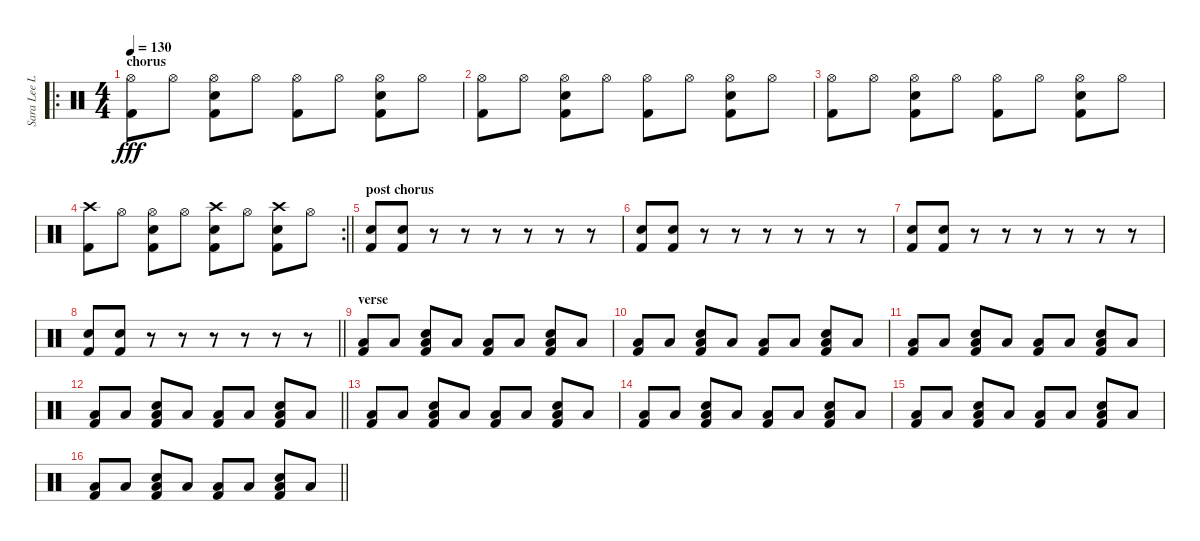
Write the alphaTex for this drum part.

\track ("Sara Lee Lucas" "Sara Lee L") {instrument percussion}
\staff {score}
\articulation defaults
\ro
\ts (4 4)
\section ("" "chorus")
\tempo 130
\clef neutral
\ks c
("Hi-Hat (open)" "Kick (hit) 2").8{dy fff} "Hi-Hat (open)".8 ("Hi-Hat (open)" "Snare (hit) 2" "Kick (hit) 2").8 "Hi-Hat (open)".8 ("Hi-Hat (open)" "Kick (hit) 2").8 "Hi-Hat (open)".8 ("Hi-Hat (open)" "Snare (hit) 2" "Kick (hit) 2").8 "Hi-Hat (open)".8 |
("Hi-Hat (open)" "Kick (hit) 2").8 "Hi-Hat (open)".8 ("Hi-Hat (open)" "Snare (hit) 2" "Kick (hit) 2").8 "Hi-Hat (open)".8 ("Hi-Hat (open)" "Kick (hit) 2").8 "Hi-Hat (open)".8 ("Hi-Hat (open)" "Snare (hit) 2" "Kick (hit) 2").8 "Hi-Hat (open)".8 |
("Hi-Hat (open)" "Kick (hit) 2").8 "Hi-Hat (open)".8 ("Hi-Hat (open)" "Snare (hit) 2" "Kick (hit) 2").8 "Hi-Hat (open)".8 ("Hi-Hat (open)" "Kick (hit) 2").8 "Hi-Hat (open)".8 ("Hi-Hat (open)" "Snare (hit) 2" "Kick (hit) 2").8 "Hi-Hat (open)".8 |
\rc 2
\barLineRight lightlight
("Crash high (hit)" "Kick (hit) 2").8 "Hi-Hat (open)".8 ("Hi-Hat (open)" "Snare (hit) 2" "Kick (hit) 2").8 "Hi-Hat (open)".8 ("Crash high (hit)" "Snare (hit) 2" "Kick (hit) 2").8 "Hi-Hat (open)".8 ("Crash high (hit)" "Snare (hit) 2" "Kick (hit) 2").8 "Hi-Hat (open)".8 |
\section ("" "post chorus")
("Snare (hit) 2" "Kick (hit) 2").8 ("Snare (hit) 2" "Kick (hit) 2").8 r.8 r.8 r.8 r.8 r.8 r.8 |
("Snare (hit) 2" "Kick (hit) 2").8 ("Snare (hit) 2" "Kick (hit) 2").8 r.8 r.8 r.8 r.8 r.8 r.8 |
("Snare (hit) 2" "Kick (hit) 2").8 ("Snare (hit) 2" "Kick (hit) 2").8 r.8 r.8 r.8 r.8 r.8 r.8 |
\barLineRight lightlight
("Snare (hit) 2" "Kick (hit) 2").8 ("Snare (hit) 2" "Kick (hit) 2").8 r.8 r.8 r.8 r.8 r.8 r.8 |
\section ("" "verse")
("Low Tom (hit)" "Kick (hit) 2").8 "Low Tom (hit)".8 ("Low Tom (hit)" "Snare (hit) 2" "Kick (hit) 2").8 "Low Tom (hit)".8 ("Low Tom (hit)" "Kick (hit) 2").8 "Low Tom (hit)".8 ("Low Tom (hit)" "Snare (hit) 2" "Kick (hit) 2").8 "Low Tom (hit)".8 |
("Low Tom (hit)" "Kick (hit) 2").8 "Low Tom (hit)".8 ("Low Tom (hit)" "Snare (hit) 2" "Kick (hit) 2").8 "Low Tom (hit)".8 ("Low Tom (hit)" "Kick (hit) 2").8 "Low Tom (hit)".8 ("Low Tom (hit)" "Snare (hit) 2" "Kick (hit) 2").8 "Low Tom (hit)".8 |
("Low Tom (hit)" "Kick (hit) 2").8 "Low Tom (hit)".8 ("Low Tom (hit)" "Snare (hit) 2" "Kick (hit) 2").8 "Low Tom (hit)".8 ("Low Tom (hit)" "Kick (hit) 2").8 "Low Tom (hit)".8 ("Low Tom (hit)" "Snare (hit) 2" "Kick (hit) 2").8 "Low Tom (hit)".8 |
\barLineRight lightlight
("Low Tom (hit)" "Kick (hit) 2").8 "Low Tom (hit)".8 ("Low Tom (hit)" "Snare (hit) 2" "Kick (hit) 2").8 "Low Tom (hit)".8 ("Low Tom (hit)" "Kick (hit) 2").8 "Low Tom (hit)".8 ("Low Tom (hit)" "Snare (hit) 2" "Kick (hit) 2").8 "Low Tom (hit)".8 |
("Low Tom (hit)" "Kick (hit) 2").8 "Low Tom (hit)".8 ("Low Tom (hit)" "Snare (hit) 2" "Kick (hit) 2").8 "Low Tom (hit)".8 ("Low Tom (hit)" "Kick (hit) 2").8 "Low Tom (hit)".8 ("Low Tom (hit)" "Snare (hit) 2" "Kick (hit) 2").8 "Low Tom (hit)".8 |
("Low Tom (hit)" "Kick (hit) 2").8 "Low Tom (hit)".8 ("Low Tom (hit)" "Snare (hit) 2" "Kick (hit) 2").8 "Low Tom (hit)".8 ("Low Tom (hit)" "Kick (hit) 2").8 "Low Tom (hit)".8 ("Low Tom (hit)" "Snare (hit) 2" "Kick (hit) 2").8 "Low Tom (hit)".8 |
("Low Tom (hit)" "Kick (hit) 2").8 "Low Tom (hit)".8 ("Low Tom (hit)" "Snare (hit) 2" "Kick (hit) 2").8 "Low Tom (hit)".8 ("Low Tom (hit)" "Kick (hit) 2").8 "Low Tom (hit)".8 ("Low Tom (hit)" "Snare (hit) 2" "Kick (hit) 2").8 "Low Tom (hit)".8 |
\barLineRight lightlight
("Low Tom (hit)" "Kick (hit) 2").8 "Low Tom (hit)".8 ("Low Tom (hit)" "Snare (hit) 2" "Kick (hit) 2").8 "Low Tom (hit)".8 ("Low Tom (hit)" "Kick (hit) 2").8 "Low Tom (hit)".8 ("Low Tom (hit)" "Snare (hit) 2" "Kick (hit) 2").8 "Low Tom (hit)".8
